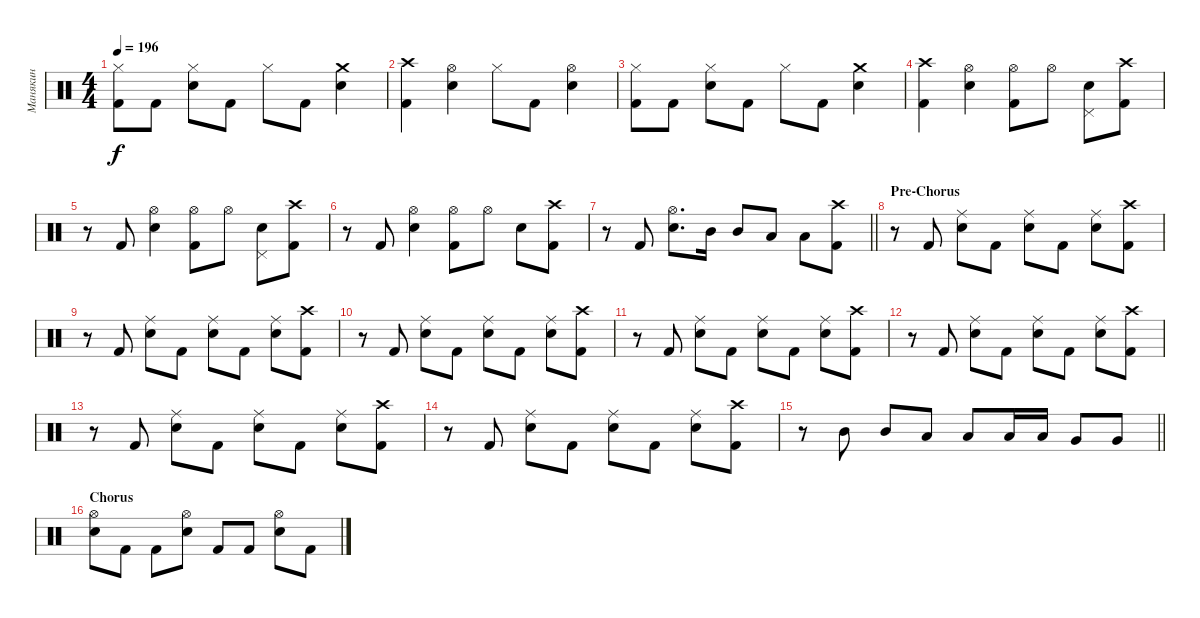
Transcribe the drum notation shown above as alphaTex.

\track ("Манякин" "Манякин") {instrument percussion}
\staff {score}
\articulation defaults
\ts (4 4)
\tempo 196
\clef neutral
\ks c
("Hi-Hat (closed)" "Kick (hit) 2").8{dy f} "Kick (hit) 2".8 ("Hi-Hat (closed)" "Electric Snare (hit)").8 "Kick (hit) 2".8 "Hi-Hat (closed)".8 "Kick (hit) 2".8 ("Crash medium (hit)" "Electric Snare (hit)").4 |
("Crash high (hit)" "Kick (hit) 2").4 ("Hi-Hat (open)" "Electric Snare (hit)").4 "Hi-Hat (closed)".8 "Kick (hit) 2".8 ("Hi-Hat (open)" "Electric Snare (hit)").4 |
("Hi-Hat (closed)" "Kick (hit) 2").8 "Kick (hit) 2".8 ("Hi-Hat (closed)" "Electric Snare (hit)").8 "Kick (hit) 2".8 "Hi-Hat (closed)".8 "Kick (hit) 2".8 ("Crash medium (hit)" "Electric Snare (hit)").4 |
("Crash high (hit)" "Kick (hit) 2").4 ("Hi-Hat (open)" "Electric Snare (hit)").4 ("Hi-Hat (open)" "Kick (hit) 2").8 "Hi-Hat (open)".8 ("Electric Snare (hit)" "Pedal Hi-Hat (hit)").8 ("Crash high (hit)" "Kick (hit) 2").8 |
r.8 "Kick (hit) 2".8 ("Hi-Hat (open)" "Electric Snare (hit)").4 ("Hi-Hat (open)" "Kick (hit) 2").8 "Hi-Hat (open)".8 ("Electric Snare (hit)" "Pedal Hi-Hat (hit)").8 ("Crash high (hit)" "Kick (hit) 2").8 |
r.8 "Kick (hit) 2".8 ("Hi-Hat (open)" "Electric Snare (hit)").4 ("Hi-Hat (open)" "Kick (hit) 2").8 "Hi-Hat (open)".8 "Electric Snare (hit)".8 ("Crash high (hit)" "Kick (hit) 2").8 |
\barLineRight lightlight
r.8 "Kick (hit) 2".8 ("Hi-Hat (open)" "Electric Snare (hit)").8{d} "Mid Tom (hit)".16 "Mid Tom (hit)".8 "Low Tom (hit)".8 "Low Tom (hit)".8 ("Crash high (hit)" "Kick (hit) 2").8 |
\section ("" "Pre-Chorus")
r.8 "Kick (hit) 2".8 ("Ride (middle)" "Electric Snare (hit)").8 "Kick (hit) 2".8 ("Ride (middle)" "Electric Snare (hit)").8 "Kick (hit) 2".8 ("Ride (middle)" "Electric Snare (hit)").8 ("Crash high (hit)" "Kick (hit) 2").8 |
r.8 "Kick (hit) 2".8 ("Ride (middle)" "Electric Snare (hit)").8 "Kick (hit) 2".8 ("Ride (middle)" "Electric Snare (hit)").8 "Kick (hit) 2".8 ("Ride (middle)" "Electric Snare (hit)").8 ("Crash high (hit)" "Kick (hit) 2").8 |
r.8 "Kick (hit) 2".8 ("Ride (middle)" "Electric Snare (hit)").8 "Kick (hit) 2".8 ("Ride (middle)" "Electric Snare (hit)").8 "Kick (hit) 2".8 ("Ride (middle)" "Electric Snare (hit)").8 ("Crash high (hit)" "Kick (hit) 2").8 |
r.8 "Kick (hit) 2".8 ("Ride (middle)" "Electric Snare (hit)").8 "Kick (hit) 2".8 ("Ride (middle)" "Electric Snare (hit)").8 "Kick (hit) 2".8 ("Ride (middle)" "Electric Snare (hit)").8 ("Crash high (hit)" "Kick (hit) 2").8 |
r.8 "Kick (hit) 2".8 ("Ride (middle)" "Electric Snare (hit)").8 "Kick (hit) 2".8 ("Ride (middle)" "Electric Snare (hit)").8 "Kick (hit) 2".8 ("Ride (middle)" "Electric Snare (hit)").8 ("Crash high (hit)" "Kick (hit) 2").8 |
r.8 "Kick (hit) 2".8 ("Ride (middle)" "Electric Snare (hit)").8 "Kick (hit) 2".8 ("Ride (middle)" "Electric Snare (hit)").8 "Kick (hit) 2".8 ("Ride (middle)" "Electric Snare (hit)").8 ("Crash high (hit)" "Kick (hit) 2").8 |
r.8 "Kick (hit) 2".8 ("Ride (middle)" "Electric Snare (hit)").8 "Kick (hit) 2".8 ("Ride (middle)" "Electric Snare (hit)").8 "Kick (hit) 2".8 ("Ride (middle)" "Electric Snare (hit)").8 ("Crash high (hit)" "Kick (hit) 2").8 |
\barLineRight lightlight
r.8 "Mid Tom (hit)".8 "Mid Tom (hit)".8 "Low Tom (hit)".8 "Low Tom (hit)".8 "Low Tom (hit)".16 "Low Tom (hit)".16 "Very Low Tom (hit)".8 "Very Low Tom (hit)".8 |
\section ("" "Chorus")
("Hi-Hat (open)" "Electric Snare (hit)").8 "Kick (hit) 2".8 "Kick (hit) 2".8 ("Hi-Hat (open)" "Electric Snare (hit)").8 "Kick (hit) 2".8 "Kick (hit) 2".8 ("Hi-Hat (open)" "Electric Snare (hit)").8 "Kick (hit) 2".8
